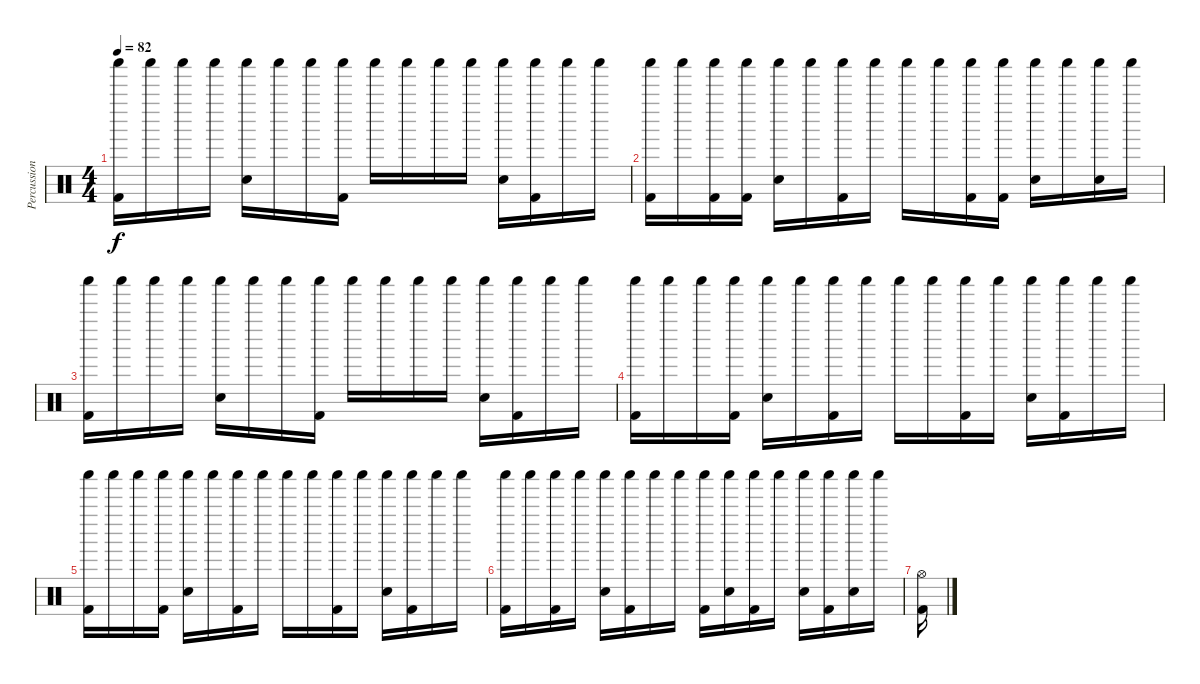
\track ("Percussion" "Percussion") {instrument percussion}
\staff {score}
\articulation defaults
\ts (4 4)
\tempo 82
\clef neutral
\ks c
("Shaker (hit)" "Kick (hit) 2").16{dy f} "Shaker (hit)".16 "Shaker (hit)".16 "Shaker (hit)".16 ("Shaker (hit)" "Snare (hit) 2").16 "Shaker (hit)".16 "Shaker (hit)".16 ("Shaker (hit)" "Kick (hit) 2").16 "Shaker (hit)".16 "Shaker (hit)".16 "Shaker (hit)".16 "Shaker (hit)".16 ("Shaker (hit)" "Snare (hit) 2").16 ("Shaker (hit)" "Kick (hit) 2").16 "Shaker (hit)".16 "Shaker (hit)".16 |
("Shaker (hit)" "Kick (hit) 2").16 "Shaker (hit)".16 ("Shaker (hit)" "Kick (hit) 2").16 ("Shaker (hit)" "Kick (hit) 2").16 ("Shaker (hit)" "Snare (hit) 2").16 "Shaker (hit)".16 ("Shaker (hit)" "Kick (hit) 2").16 "Shaker (hit)".16 "Shaker (hit)".16 "Shaker (hit)".16 ("Shaker (hit)" "Kick (hit) 2").16 ("Shaker (hit)" "Kick (hit) 2").16 ("Shaker (hit)" "Snare (hit) 2").16 "Shaker (hit)".16 ("Shaker (hit)" "Snare (hit) 2").16 "Shaker (hit)".16 |
("Shaker (hit)" "Kick (hit) 2").16 "Shaker (hit)".16 "Shaker (hit)".16 "Shaker (hit)".16 ("Shaker (hit)" "Snare (hit) 2").16 "Shaker (hit)".16 "Shaker (hit)".16 ("Shaker (hit)" "Kick (hit) 2").16 "Shaker (hit)".16 "Shaker (hit)".16 "Shaker (hit)".16 "Shaker (hit)".16 ("Shaker (hit)" "Snare (hit) 2").16 ("Shaker (hit)" "Kick (hit) 2").16 "Shaker (hit)".16 "Shaker (hit)".16 |
("Shaker (hit)" "Kick (hit) 2").16 "Shaker (hit)".16 "Shaker (hit)".16 ("Shaker (hit)" "Kick (hit) 2").16 ("Shaker (hit)" "Snare (hit) 2").16 "Shaker (hit)".16 ("Shaker (hit)" "Kick (hit) 2").16 "Shaker (hit)".16 "Shaker (hit)".16 "Shaker (hit)".16 ("Shaker (hit)" "Kick (hit) 2").16 "Shaker (hit)".16 ("Shaker (hit)" "Snare (hit) 2").16 ("Shaker (hit)" "Kick (hit) 2").16 "Shaker (hit)".16 "Shaker (hit)".16 |
("Shaker (hit)" "Kick (hit) 2").16 "Shaker (hit)".16 "Shaker (hit)".16 ("Shaker (hit)" "Kick (hit) 2").16 ("Shaker (hit)" "Snare (hit) 2").16 "Shaker (hit)".16 ("Shaker (hit)" "Kick (hit) 2").16 "Shaker (hit)".16 "Shaker (hit)".16 "Shaker (hit)".16 ("Shaker (hit)" "Kick (hit) 2").16 "Shaker (hit)".16 ("Shaker (hit)" "Snare (hit) 2").16 ("Shaker (hit)" "Kick (hit) 2").16 "Shaker (hit)".16 "Shaker (hit)".16 |
("Shaker (hit)" "Kick (hit) 2").16 "Shaker (hit)".16 ("Shaker (hit)" "Kick (hit) 2").16 "Shaker (hit)".16 ("Shaker (hit)" "Snare (hit) 2").16 ("Shaker (hit)" "Kick (hit) 2").16 "Shaker (hit)".16 "Shaker (hit)".16 ("Shaker (hit)" "Kick (hit) 2").16 ("Shaker (hit)" "Snare (hit) 2").16 ("Shaker (hit)" "Kick (hit) 2").16 "Shaker (hit)".16 ("Shaker (hit)" "Snare (hit) 2").16 ("Shaker (hit)" "Kick (hit) 2").16 ("Shaker (hit)" "Snare (hit) 2").16 "Shaker (hit)".16 |
("Hi-Hat (open)" "Kick (hit) 2").16
